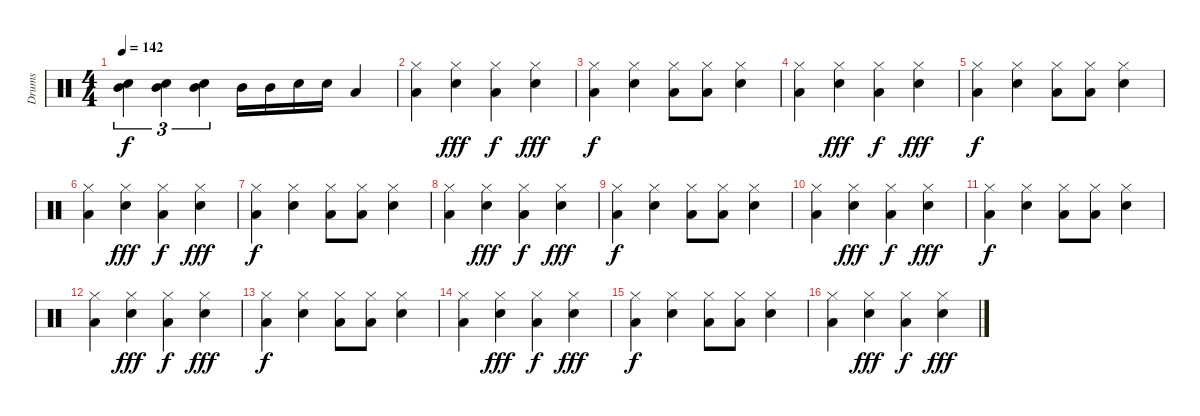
\track ("Drums" "Drums") {instrument percussion}
\staff {score}
\articulation defaults
\ts (4 4)
\tempo 142
\clef neutral
\ks aminor
("Mid Tom (hit)" "Snare (hit) 2").4{tu (3 2) dy f} ("Mid Tom (hit)" "Snare (hit) 2").4{tu (3 2)} ("Mid Tom (hit)" "Snare (hit) 2").4{tu (3 2)} "Mid Tom (hit)".16 "Mid Tom (hit)".16 "Snare (hit) 2".16 "Snare (hit) 2".16 "Low Floor Tom (hit)".4 |
("Hi-Hat (closed)" "Low Floor Tom (hit)").4 ("Hi-Hat (closed)" "Snare (hit) 2").4{dy fff} ("Hi-Hat (closed)" "Low Floor Tom (hit)").4{dy f} ("Hi-Hat (closed)" "Snare (hit) 2").4{dy fff} |
("Hi-Hat (closed)" "Low Floor Tom (hit)").4{dy f} ("Hi-Hat (closed)" "Snare (hit) 2").4 ("Hi-Hat (closed)" "Low Floor Tom (hit)").8 ("Hi-Hat (closed)" "Low Floor Tom (hit)").8 ("Hi-Hat (closed)" "Snare (hit) 2").4 |
("Hi-Hat (closed)" "Low Floor Tom (hit)").4 ("Hi-Hat (closed)" "Snare (hit) 2").4{dy fff} ("Hi-Hat (closed)" "Low Floor Tom (hit)").4{dy f} ("Hi-Hat (closed)" "Snare (hit) 2").4{dy fff} |
("Hi-Hat (closed)" "Low Floor Tom (hit)").4{dy f} ("Hi-Hat (closed)" "Snare (hit) 2").4 ("Hi-Hat (closed)" "Low Floor Tom (hit)").8 ("Hi-Hat (closed)" "Low Floor Tom (hit)").8 ("Hi-Hat (closed)" "Snare (hit) 2").4 |
("Hi-Hat (closed)" "Low Floor Tom (hit)").4 ("Hi-Hat (closed)" "Snare (hit) 2").4{dy fff} ("Hi-Hat (closed)" "Low Floor Tom (hit)").4{dy f} ("Hi-Hat (closed)" "Snare (hit) 2").4{dy fff} |
("Hi-Hat (closed)" "Low Floor Tom (hit)").4{dy f} ("Hi-Hat (closed)" "Snare (hit) 2").4 ("Hi-Hat (closed)" "Low Floor Tom (hit)").8 ("Hi-Hat (closed)" "Low Floor Tom (hit)").8 ("Hi-Hat (closed)" "Snare (hit) 2").4 |
("Hi-Hat (closed)" "Low Floor Tom (hit)").4 ("Hi-Hat (closed)" "Snare (hit) 2").4{dy fff} ("Hi-Hat (closed)" "Low Floor Tom (hit)").4{dy f} ("Hi-Hat (closed)" "Snare (hit) 2").4{dy fff} |
("Hi-Hat (closed)" "Low Floor Tom (hit)").4{dy f} ("Hi-Hat (closed)" "Snare (hit) 2").4 ("Hi-Hat (closed)" "Low Floor Tom (hit)").8 ("Hi-Hat (closed)" "Low Floor Tom (hit)").8 ("Hi-Hat (closed)" "Snare (hit) 2").4 |
("Hi-Hat (closed)" "Low Floor Tom (hit)").4 ("Hi-Hat (closed)" "Snare (hit) 2").4{dy fff} ("Hi-Hat (closed)" "Low Floor Tom (hit)").4{dy f} ("Hi-Hat (closed)" "Snare (hit) 2").4{dy fff} |
("Hi-Hat (closed)" "Low Floor Tom (hit)").4{dy f} ("Hi-Hat (closed)" "Snare (hit) 2").4 ("Hi-Hat (closed)" "Low Floor Tom (hit)").8 ("Hi-Hat (closed)" "Low Floor Tom (hit)").8 ("Hi-Hat (closed)" "Snare (hit) 2").4 |
("Hi-Hat (closed)" "Low Floor Tom (hit)").4 ("Hi-Hat (closed)" "Snare (hit) 2").4{dy fff} ("Hi-Hat (closed)" "Low Floor Tom (hit)").4{dy f} ("Hi-Hat (closed)" "Snare (hit) 2").4{dy fff} |
("Hi-Hat (closed)" "Low Floor Tom (hit)").4{dy f} ("Hi-Hat (closed)" "Snare (hit) 2").4 ("Hi-Hat (closed)" "Low Floor Tom (hit)").8 ("Hi-Hat (closed)" "Low Floor Tom (hit)").8 ("Hi-Hat (closed)" "Snare (hit) 2").4 |
("Hi-Hat (closed)" "Low Floor Tom (hit)").4 ("Hi-Hat (closed)" "Snare (hit) 2").4{dy fff} ("Hi-Hat (closed)" "Low Floor Tom (hit)").4{dy f} ("Hi-Hat (closed)" "Snare (hit) 2").4{dy fff} |
("Hi-Hat (closed)" "Low Floor Tom (hit)").4{dy f} ("Hi-Hat (closed)" "Snare (hit) 2").4 ("Hi-Hat (closed)" "Low Floor Tom (hit)").8 ("Hi-Hat (closed)" "Low Floor Tom (hit)").8 ("Hi-Hat (closed)" "Snare (hit) 2").4 |
("Hi-Hat (closed)" "Low Floor Tom (hit)").4 ("Hi-Hat (closed)" "Snare (hit) 2").4{dy fff} ("Hi-Hat (closed)" "Low Floor Tom (hit)").4{dy f} ("Hi-Hat (closed)" "Snare (hit) 2").4{dy fff}
